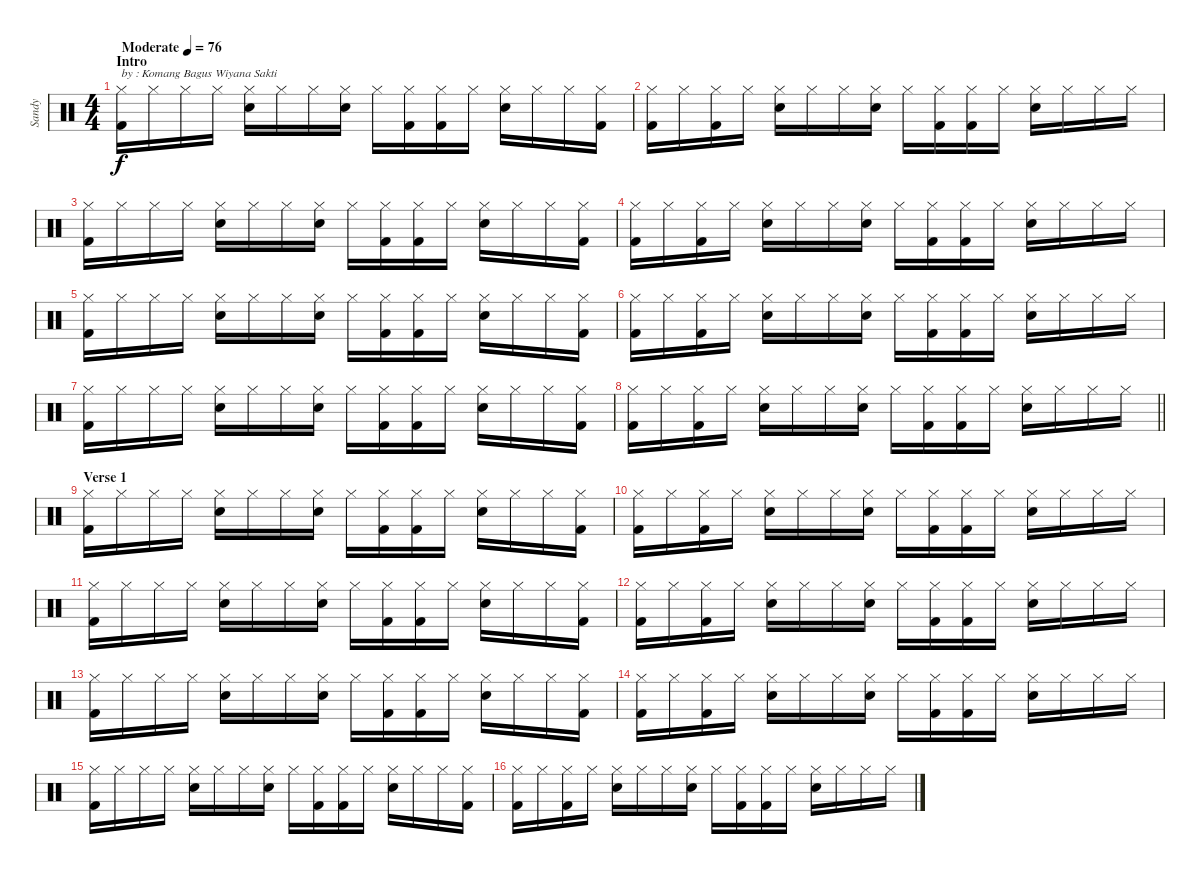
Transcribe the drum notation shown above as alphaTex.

\track ("Sandy" "Sandy") {instrument percussion}
\staff {score}
\articulation defaults
\ts (4 4)
\section ("" "Intro")
\tempo (76 "Moderate")
\clef neutral
\ks c
("Hi-Hat (closed)" "Kick (hit) 2").16{txt "by : Komang Bagus Wiyana Sakti" dy f} "Hi-Hat (closed)".16 "Hi-Hat (closed)".16 "Hi-Hat (closed)".16 ("Hi-Hat (closed)" "Electric Snare (hit)").16 "Hi-Hat (closed)".16 "Hi-Hat (closed)".16 ("Hi-Hat (closed)" "Electric Snare (hit)").16 "Hi-Hat (closed)".16 ("Hi-Hat (closed)" "Kick (hit) 2").16 ("Hi-Hat (closed)" "Kick (hit) 2").16 "Hi-Hat (closed)".16 ("Hi-Hat (closed)" "Electric Snare (hit)").16 "Hi-Hat (closed)".16 "Hi-Hat (closed)".16 ("Hi-Hat (closed)" "Kick (hit) 2").16 |
("Hi-Hat (closed)" "Kick (hit) 2").16 "Hi-Hat (closed)".16 ("Hi-Hat (closed)" "Kick (hit) 2").16 "Hi-Hat (closed)".16 ("Hi-Hat (closed)" "Electric Snare (hit)").16 "Hi-Hat (closed)".16 "Hi-Hat (closed)".16 ("Hi-Hat (closed)" "Electric Snare (hit)").16 "Hi-Hat (closed)".16 ("Hi-Hat (closed)" "Kick (hit) 2").16 ("Hi-Hat (closed)" "Kick (hit) 2").16 "Hi-Hat (closed)".16 ("Hi-Hat (closed)" "Electric Snare (hit)").16 "Hi-Hat (closed)".16 "Hi-Hat (closed)".16 "Hi-Hat (closed)".16 |
("Hi-Hat (closed)" "Kick (hit) 2").16 "Hi-Hat (closed)".16 "Hi-Hat (closed)".16 "Hi-Hat (closed)".16 ("Hi-Hat (closed)" "Electric Snare (hit)").16 "Hi-Hat (closed)".16 "Hi-Hat (closed)".16 ("Hi-Hat (closed)" "Electric Snare (hit)").16 "Hi-Hat (closed)".16 ("Hi-Hat (closed)" "Kick (hit) 2").16 ("Hi-Hat (closed)" "Kick (hit) 2").16 "Hi-Hat (closed)".16 ("Hi-Hat (closed)" "Electric Snare (hit)").16 "Hi-Hat (closed)".16 "Hi-Hat (closed)".16 ("Hi-Hat (closed)" "Kick (hit) 2").16 |
("Hi-Hat (closed)" "Kick (hit) 2").16 "Hi-Hat (closed)".16 ("Hi-Hat (closed)" "Kick (hit) 2").16 "Hi-Hat (closed)".16 ("Hi-Hat (closed)" "Electric Snare (hit)").16 "Hi-Hat (closed)".16 "Hi-Hat (closed)".16 ("Hi-Hat (closed)" "Electric Snare (hit)").16 "Hi-Hat (closed)".16 ("Hi-Hat (closed)" "Kick (hit) 2").16 ("Hi-Hat (closed)" "Kick (hit) 2").16 "Hi-Hat (closed)".16 ("Hi-Hat (closed)" "Electric Snare (hit)").16 "Hi-Hat (closed)".16 "Hi-Hat (closed)".16 "Hi-Hat (closed)".16 |
("Hi-Hat (closed)" "Kick (hit) 2").16 "Hi-Hat (closed)".16 "Hi-Hat (closed)".16 "Hi-Hat (closed)".16 ("Hi-Hat (closed)" "Electric Snare (hit)").16 "Hi-Hat (closed)".16 "Hi-Hat (closed)".16 ("Hi-Hat (closed)" "Electric Snare (hit)").16 "Hi-Hat (closed)".16 ("Hi-Hat (closed)" "Kick (hit) 2").16 ("Hi-Hat (closed)" "Kick (hit) 2").16 "Hi-Hat (closed)".16 ("Hi-Hat (closed)" "Electric Snare (hit)").16 "Hi-Hat (closed)".16 "Hi-Hat (closed)".16 ("Hi-Hat (closed)" "Kick (hit) 2").16 |
("Hi-Hat (closed)" "Kick (hit) 2").16 "Hi-Hat (closed)".16 ("Hi-Hat (closed)" "Kick (hit) 2").16 "Hi-Hat (closed)".16 ("Hi-Hat (closed)" "Electric Snare (hit)").16 "Hi-Hat (closed)".16 "Hi-Hat (closed)".16 ("Hi-Hat (closed)" "Electric Snare (hit)").16 "Hi-Hat (closed)".16 ("Hi-Hat (closed)" "Kick (hit) 2").16 ("Hi-Hat (closed)" "Kick (hit) 2").16 "Hi-Hat (closed)".16 ("Hi-Hat (closed)" "Electric Snare (hit)").16 "Hi-Hat (closed)".16 "Hi-Hat (closed)".16 "Hi-Hat (closed)".16 |
("Hi-Hat (closed)" "Kick (hit) 2").16 "Hi-Hat (closed)".16 "Hi-Hat (closed)".16 "Hi-Hat (closed)".16 ("Hi-Hat (closed)" "Electric Snare (hit)").16 "Hi-Hat (closed)".16 "Hi-Hat (closed)".16 ("Hi-Hat (closed)" "Electric Snare (hit)").16 "Hi-Hat (closed)".16 ("Hi-Hat (closed)" "Kick (hit) 2").16 ("Hi-Hat (closed)" "Kick (hit) 2").16 "Hi-Hat (closed)".16 ("Hi-Hat (closed)" "Electric Snare (hit)").16 "Hi-Hat (closed)".16 "Hi-Hat (closed)".16 ("Hi-Hat (closed)" "Kick (hit) 2").16 |
\barLineRight lightlight
("Hi-Hat (closed)" "Kick (hit) 2").16 "Hi-Hat (closed)".16 ("Hi-Hat (closed)" "Kick (hit) 2").16 "Hi-Hat (closed)".16 ("Hi-Hat (closed)" "Electric Snare (hit)").16 "Hi-Hat (closed)".16 "Hi-Hat (closed)".16 ("Hi-Hat (closed)" "Electric Snare (hit)").16 "Hi-Hat (closed)".16 ("Hi-Hat (closed)" "Kick (hit) 2").16 ("Hi-Hat (closed)" "Kick (hit) 2").16 "Hi-Hat (closed)".16 ("Hi-Hat (closed)" "Electric Snare (hit)").16 "Hi-Hat (closed)".16 "Hi-Hat (closed)".16 "Hi-Hat (closed)".16 |
\section ("" "Verse 1")
("Hi-Hat (closed)" "Kick (hit) 2").16 "Hi-Hat (closed)".16 "Hi-Hat (closed)".16 "Hi-Hat (closed)".16 ("Hi-Hat (closed)" "Electric Snare (hit)").16 "Hi-Hat (closed)".16 "Hi-Hat (closed)".16 ("Hi-Hat (closed)" "Electric Snare (hit)").16 "Hi-Hat (closed)".16 ("Hi-Hat (closed)" "Kick (hit) 2").16 ("Hi-Hat (closed)" "Kick (hit) 2").16 "Hi-Hat (closed)".16 ("Hi-Hat (closed)" "Electric Snare (hit)").16 "Hi-Hat (closed)".16 "Hi-Hat (closed)".16 ("Hi-Hat (closed)" "Kick (hit) 2").16 |
("Hi-Hat (closed)" "Kick (hit) 2").16 "Hi-Hat (closed)".16 ("Hi-Hat (closed)" "Kick (hit) 2").16 "Hi-Hat (closed)".16 ("Hi-Hat (closed)" "Electric Snare (hit)").16 "Hi-Hat (closed)".16 "Hi-Hat (closed)".16 ("Hi-Hat (closed)" "Electric Snare (hit)").16 "Hi-Hat (closed)".16 ("Hi-Hat (closed)" "Kick (hit) 2").16 ("Hi-Hat (closed)" "Kick (hit) 2").16 "Hi-Hat (closed)".16 ("Hi-Hat (closed)" "Electric Snare (hit)").16 "Hi-Hat (closed)".16 "Hi-Hat (closed)".16 "Hi-Hat (closed)".16 |
("Hi-Hat (closed)" "Kick (hit) 2").16 "Hi-Hat (closed)".16 "Hi-Hat (closed)".16 "Hi-Hat (closed)".16 ("Hi-Hat (closed)" "Electric Snare (hit)").16 "Hi-Hat (closed)".16 "Hi-Hat (closed)".16 ("Hi-Hat (closed)" "Electric Snare (hit)").16 "Hi-Hat (closed)".16 ("Hi-Hat (closed)" "Kick (hit) 2").16 ("Hi-Hat (closed)" "Kick (hit) 2").16 "Hi-Hat (closed)".16 ("Hi-Hat (closed)" "Electric Snare (hit)").16 "Hi-Hat (closed)".16 "Hi-Hat (closed)".16 ("Hi-Hat (closed)" "Kick (hit) 2").16 |
("Hi-Hat (closed)" "Kick (hit) 2").16 "Hi-Hat (closed)".16 ("Hi-Hat (closed)" "Kick (hit) 2").16 "Hi-Hat (closed)".16 ("Hi-Hat (closed)" "Electric Snare (hit)").16 "Hi-Hat (closed)".16 "Hi-Hat (closed)".16 ("Hi-Hat (closed)" "Electric Snare (hit)").16 "Hi-Hat (closed)".16 ("Hi-Hat (closed)" "Kick (hit) 2").16 ("Hi-Hat (closed)" "Kick (hit) 2").16 "Hi-Hat (closed)".16 ("Hi-Hat (closed)" "Electric Snare (hit)").16 "Hi-Hat (closed)".16 "Hi-Hat (closed)".16 "Hi-Hat (closed)".16 |
("Hi-Hat (closed)" "Kick (hit) 2").16 "Hi-Hat (closed)".16 "Hi-Hat (closed)".16 "Hi-Hat (closed)".16 ("Hi-Hat (closed)" "Electric Snare (hit)").16 "Hi-Hat (closed)".16 "Hi-Hat (closed)".16 ("Hi-Hat (closed)" "Electric Snare (hit)").16 "Hi-Hat (closed)".16 ("Hi-Hat (closed)" "Kick (hit) 2").16 ("Hi-Hat (closed)" "Kick (hit) 2").16 "Hi-Hat (closed)".16 ("Hi-Hat (closed)" "Electric Snare (hit)").16 "Hi-Hat (closed)".16 "Hi-Hat (closed)".16 ("Hi-Hat (closed)" "Kick (hit) 2").16 |
("Hi-Hat (closed)" "Kick (hit) 2").16 "Hi-Hat (closed)".16 ("Hi-Hat (closed)" "Kick (hit) 2").16 "Hi-Hat (closed)".16 ("Hi-Hat (closed)" "Electric Snare (hit)").16 "Hi-Hat (closed)".16 "Hi-Hat (closed)".16 ("Hi-Hat (closed)" "Electric Snare (hit)").16 "Hi-Hat (closed)".16 ("Hi-Hat (closed)" "Kick (hit) 2").16 ("Hi-Hat (closed)" "Kick (hit) 2").16 "Hi-Hat (closed)".16 ("Hi-Hat (closed)" "Electric Snare (hit)").16 "Hi-Hat (closed)".16 "Hi-Hat (closed)".16 "Hi-Hat (closed)".16 |
("Hi-Hat (closed)" "Kick (hit) 2").16 "Hi-Hat (closed)".16 "Hi-Hat (closed)".16 "Hi-Hat (closed)".16 ("Hi-Hat (closed)" "Electric Snare (hit)").16 "Hi-Hat (closed)".16 "Hi-Hat (closed)".16 ("Hi-Hat (closed)" "Electric Snare (hit)").16 "Hi-Hat (closed)".16 ("Hi-Hat (closed)" "Kick (hit) 2").16 ("Hi-Hat (closed)" "Kick (hit) 2").16 "Hi-Hat (closed)".16 ("Hi-Hat (closed)" "Electric Snare (hit)").16 "Hi-Hat (closed)".16 "Hi-Hat (closed)".16 ("Hi-Hat (closed)" "Kick (hit) 2").16 |
("Hi-Hat (closed)" "Kick (hit) 2").16 "Hi-Hat (closed)".16 ("Hi-Hat (closed)" "Kick (hit) 2").16 "Hi-Hat (closed)".16 ("Hi-Hat (closed)" "Electric Snare (hit)").16 "Hi-Hat (closed)".16 "Hi-Hat (closed)".16 ("Hi-Hat (closed)" "Electric Snare (hit)").16 "Hi-Hat (closed)".16 ("Hi-Hat (closed)" "Kick (hit) 2").16 ("Hi-Hat (closed)" "Kick (hit) 2").16 "Hi-Hat (closed)".16 ("Hi-Hat (closed)" "Electric Snare (hit)").16 "Hi-Hat (closed)".16 "Hi-Hat (closed)".16 "Hi-Hat (closed)".16
